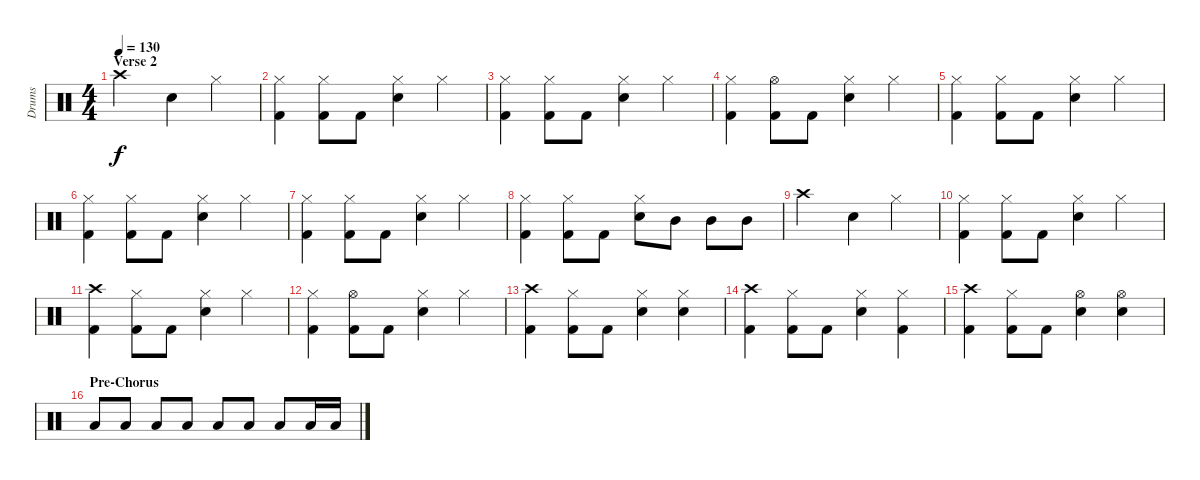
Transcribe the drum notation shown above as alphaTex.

\track ("Drums" "Drums") {instrument percussion}
\staff {score}
\articulation defaults
\ts (4 4)
\section ("" "Verse 2")
\tempo 130
\clef neutral
\ks c "Crash high (hit)".2{dy f} "Snare (hit) 2".4 "Hi-Hat (closed)".4
|
("Hi-Hat (closed)" "Kick (hit) 2").4 ("Hi-Hat (closed)" "Kick (hit) 2").8 "Kick (hit) 2".8 ("Hi-Hat (closed)" "Snare (hit) 2").4 "Hi-Hat (closed)".4 |
("Hi-Hat (closed)" "Kick (hit) 2").4 ("Hi-Hat (closed)" "Kick (hit) 2").8 "Kick (hit) 2".8 ("Hi-Hat (closed)" "Snare (hit) 2").4 "Hi-Hat (closed)".4 |
("Hi-Hat (closed)" "Kick (hit) 2").4 ("Hi-Hat (open)" "Kick (hit) 2").8 "Kick (hit) 2".8 ("Hi-Hat (closed)" "Snare (hit) 2").4 "Hi-Hat (closed)".4 |
("Hi-Hat (closed)" "Kick (hit) 2").4 ("Hi-Hat (closed)" "Kick (hit) 2").8 "Kick (hit) 2".8 ("Hi-Hat (closed)" "Snare (hit) 2").4 "Hi-Hat (closed)".4 |
("Hi-Hat (closed)" "Kick (hit) 2").4 ("Hi-Hat (closed)" "Kick (hit) 2").8 "Kick (hit) 2".8 ("Hi-Hat (closed)" "Snare (hit) 2").4 "Hi-Hat (closed)".4 |
("Hi-Hat (closed)" "Kick (hit) 2").4 ("Hi-Hat (closed)" "Kick (hit) 2").8 "Kick (hit) 2".8 ("Hi-Hat (closed)" "Snare (hit) 2").4 "Hi-Hat (closed)".4 |
("Hi-Hat (closed)" "Kick (hit) 2").4 ("Hi-Hat (closed)" "Kick (hit) 2").8 "Kick (hit) 2".8 ("Hi-Hat (closed)" "Snare (hit) 2").8 "Mid Tom (hit)".8 "Mid Tom (hit)".8 "Mid Tom (hit)".8 |
"Crash high (hit)".2 "Snare (hit) 2".4 "Hi-Hat (closed)".4 |
("Hi-Hat (closed)" "Kick (hit) 2").4 ("Hi-Hat (closed)" "Kick (hit) 2").8 "Kick (hit) 2".8 ("Hi-Hat (closed)" "Snare (hit) 2").4 "Hi-Hat (closed)".4 |
("Crash high (hit)" "Kick (hit) 2").4 ("Hi-Hat (closed)" "Kick (hit) 2").8 "Kick (hit) 2".8 ("Hi-Hat (closed)" "Snare (hit) 2").4 "Hi-Hat (closed)".4 |
("Hi-Hat (closed)" "Kick (hit) 2").4 ("Hi-Hat (open)" "Kick (hit) 2").8 "Kick (hit) 2".8 ("Hi-Hat (closed)" "Snare (hit) 2").4 "Hi-Hat (closed)".4 |
("Crash high (hit)" "Kick (hit) 2").4 ("Hi-Hat (closed)" "Kick (hit) 2").8 "Kick (hit) 2".8 ("Hi-Hat (closed)" "Snare (hit) 2").4 ("Hi-Hat (closed)" "Snare (hit) 2").4 |
("Crash high (hit)" "Kick (hit) 2").4 ("Hi-Hat (closed)" "Kick (hit) 2").8 "Kick (hit) 2".8 ("Hi-Hat (closed)" "Snare (hit) 2").4 ("Hi-Hat (closed)" "Kick (hit) 2").4 |
("Crash high (hit)" "Kick (hit) 2").4 ("Hi-Hat (closed)" "Kick (hit) 2").8 "Kick (hit) 2".8 ("Hi-Hat (open)" "Snare (hit) 2").4 ("Hi-Hat (open)" "Snare (hit) 2").4 |
\section ("" "Pre-Chorus")
"Low Tom (hit)".8 "Low Tom (hit)".8 "Low Tom (hit)".8 "Low Tom (hit)".8 "Low Tom (hit)".8 "Low Tom (hit)".8 "Low Tom (hit)".8 "Low Tom (hit)".16 "Low Tom (hit)".16
